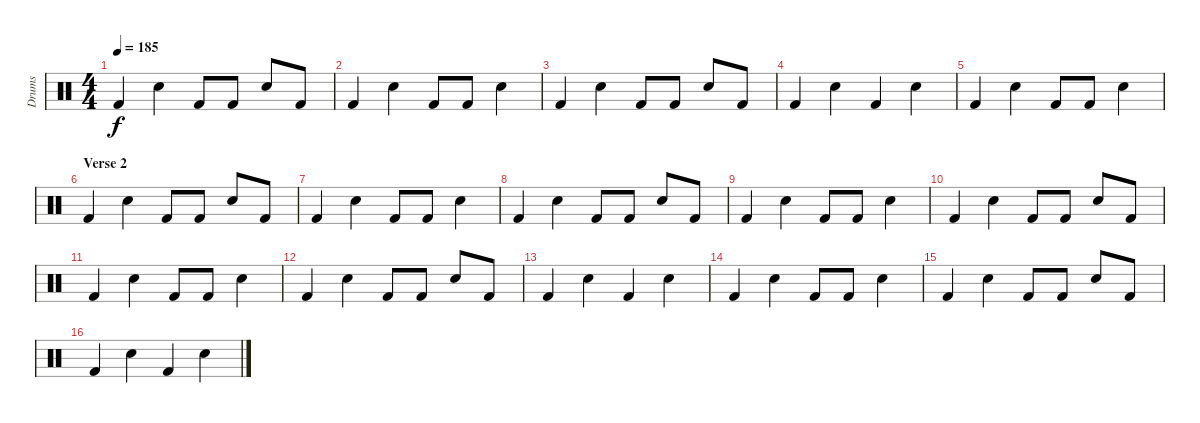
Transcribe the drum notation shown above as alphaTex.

\track ("Drums" "Drums") {instrument percussion}
\staff {score}
\articulation defaults
\ts (4 4)
\tempo 185
\clef neutral
\ks c "Kick (hit) 2".4{dy f} "Electric Snare (hit)".4 "Kick (hit) 2".8 "Kick (hit) 2".8 "Electric Snare (hit)".8 "Kick (hit) 2".8
|
"Kick (hit) 2".4 "Electric Snare (hit)".4 "Kick (hit) 2".8 "Kick (hit) 2".8 "Electric Snare (hit)".4 |
"Kick (hit) 2".4 "Electric Snare (hit)".4 "Kick (hit) 2".8 "Kick (hit) 2".8 "Electric Snare (hit)".8 "Kick (hit) 2".8 |
"Kick (hit) 2".4 "Electric Snare (hit)".4 "Kick (hit) 2".4 "Electric Snare (hit)".4 |
"Kick (hit) 2".4 "Electric Snare (hit)".4 "Kick (hit) 2".8 "Kick (hit) 2".8 "Electric Snare (hit)".4 |
\section ("" "Verse 2")
"Kick (hit) 2".4 "Electric Snare (hit)".4 "Kick (hit) 2".8 "Kick (hit) 2".8 "Electric Snare (hit)".8 "Kick (hit) 2".8 |
"Kick (hit) 2".4 "Electric Snare (hit)".4 "Kick (hit) 2".8 "Kick (hit) 2".8 "Electric Snare (hit)".4 |
"Kick (hit) 2".4 "Electric Snare (hit)".4 "Kick (hit) 2".8 "Kick (hit) 2".8 "Electric Snare (hit)".8 "Kick (hit) 2".8 |
"Kick (hit) 2".4 "Electric Snare (hit)".4 "Kick (hit) 2".8 "Kick (hit) 2".8 "Electric Snare (hit)".4 |
"Kick (hit) 2".4 "Electric Snare (hit)".4 "Kick (hit) 2".8 "Kick (hit) 2".8 "Electric Snare (hit)".8 "Kick (hit) 2".8 |
"Kick (hit) 2".4 "Electric Snare (hit)".4 "Kick (hit) 2".8 "Kick (hit) 2".8 "Electric Snare (hit)".4 |
"Kick (hit) 2".4 "Electric Snare (hit)".4 "Kick (hit) 2".8 "Kick (hit) 2".8 "Electric Snare (hit)".8 "Kick (hit) 2".8 |
"Kick (hit) 2".4 "Electric Snare (hit)".4 "Kick (hit) 2".4 "Electric Snare (hit)".4 |
"Kick (hit) 2".4 "Electric Snare (hit)".4 "Kick (hit) 2".8 "Kick (hit) 2".8 "Electric Snare (hit)".4 |
"Kick (hit) 2".4 "Electric Snare (hit)".4 "Kick (hit) 2".8 "Kick (hit) 2".8 "Electric Snare (hit)".8 "Kick (hit) 2".8 |
"Kick (hit) 2".4 "Electric Snare (hit)".4 "Kick (hit) 2".4 "Electric Snare (hit)".4
